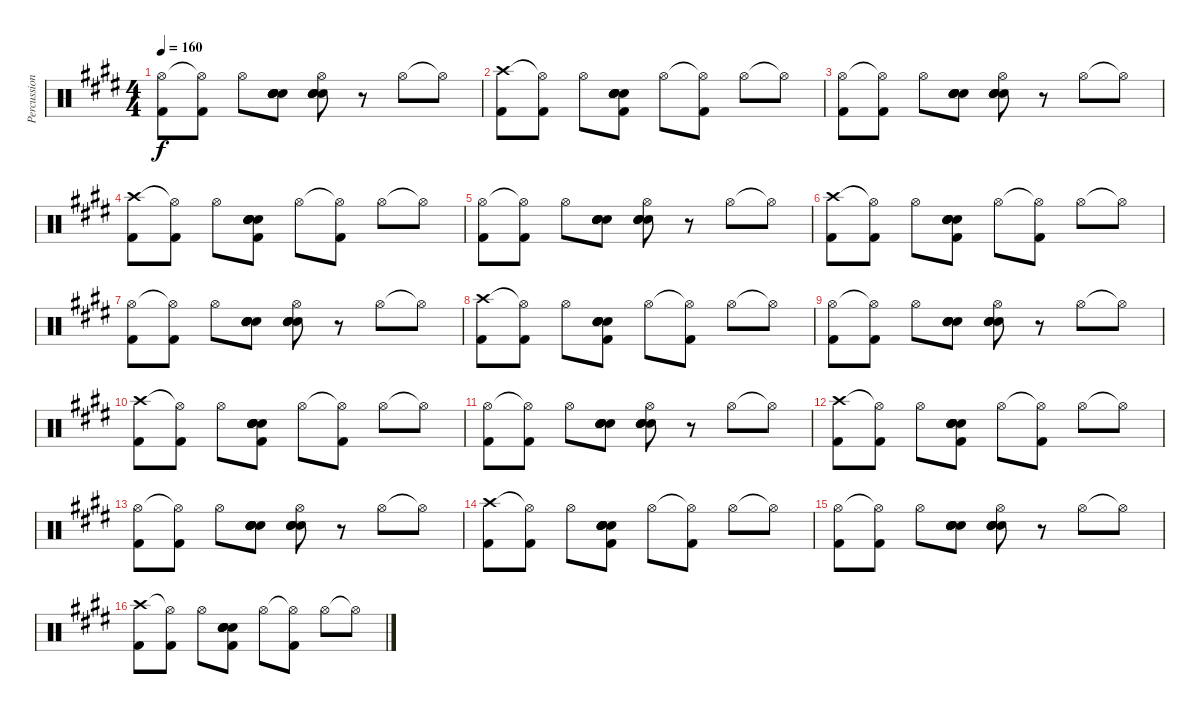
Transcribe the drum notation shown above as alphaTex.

\track ("Percussion" "Percussion") {instrument percussion}
\staff {score}
\articulation defaults
\ts (4 4)
\tempo 160
\clef neutral
\ks c#minor
("Hi-Hat (open)" "Kick (hit) 2").8{dy f} ("Hi-Hat (open)"{t} "Kick (hit) 2").8 "Hi-Hat (open)".8 ("Electric Snare (hit)" "Electric Snare (hit)" "Electric Snare (hit)" "Electric Snare (hit)" "Electric Snare (hit)").8 ("Electric Snare (hit)" "Electric Snare (hit)" "Hi-Hat (open)" "Electric Snare (hit)" "Electric Snare (hit)").8 r.8 "Hi-Hat (open)".8 "Hi-Hat (open)"{t}.8 |
("Crash high (hit)" "Kick (hit) 2").8 ("Hi-Hat (open)"{t} "Kick (hit) 2").8 "Hi-Hat (open)".8 ("Electric Snare (hit)" "Electric Snare (hit)" "Electric Snare (hit)" "Electric Snare (hit)" "Electric Snare (hit)" "Kick (hit) 2").8 "Hi-Hat (open)".8 ("Hi-Hat (open)"{t} "Kick (hit) 2").8 "Hi-Hat (open)".8 "Hi-Hat (open)"{t}.8 |
("Hi-Hat (open)" "Kick (hit) 2").8 ("Hi-Hat (open)"{t} "Kick (hit) 2").8 "Hi-Hat (open)".8 ("Electric Snare (hit)" "Electric Snare (hit)" "Electric Snare (hit)" "Electric Snare (hit)" "Electric Snare (hit)").8 ("Electric Snare (hit)" "Electric Snare (hit)" "Hi-Hat (open)" "Electric Snare (hit)" "Electric Snare (hit)").8 r.8 "Hi-Hat (open)".8 "Hi-Hat (open)"{t}.8 |
("Crash high (hit)" "Kick (hit) 2").8 ("Hi-Hat (open)"{t} "Kick (hit) 2").8 "Hi-Hat (open)".8 ("Electric Snare (hit)" "Electric Snare (hit)" "Electric Snare (hit)" "Electric Snare (hit)" "Electric Snare (hit)" "Kick (hit) 2").8 "Hi-Hat (open)".8 ("Hi-Hat (open)"{t} "Kick (hit) 2").8 "Hi-Hat (open)".8 "Hi-Hat (open)"{t}.8 |
("Hi-Hat (open)" "Kick (hit) 2").8 ("Hi-Hat (open)"{t} "Kick (hit) 2").8 "Hi-Hat (open)".8 ("Electric Snare (hit)" "Electric Snare (hit)" "Electric Snare (hit)" "Electric Snare (hit)" "Electric Snare (hit)").8 ("Electric Snare (hit)" "Electric Snare (hit)" "Hi-Hat (open)" "Electric Snare (hit)" "Electric Snare (hit)").8 r.8 "Hi-Hat (open)".8 "Hi-Hat (open)"{t}.8 |
("Crash high (hit)" "Kick (hit) 2").8 ("Hi-Hat (open)"{t} "Kick (hit) 2").8 "Hi-Hat (open)".8 ("Electric Snare (hit)" "Electric Snare (hit)" "Electric Snare (hit)" "Electric Snare (hit)" "Electric Snare (hit)" "Kick (hit) 2").8 "Hi-Hat (open)".8 ("Hi-Hat (open)"{t} "Kick (hit) 2").8 "Hi-Hat (open)".8 "Hi-Hat (open)"{t}.8 |
("Hi-Hat (open)" "Kick (hit) 2").8 ("Hi-Hat (open)"{t} "Kick (hit) 2").8 "Hi-Hat (open)".8 ("Electric Snare (hit)" "Electric Snare (hit)" "Electric Snare (hit)" "Electric Snare (hit)" "Electric Snare (hit)").8 ("Electric Snare (hit)" "Electric Snare (hit)" "Hi-Hat (open)" "Electric Snare (hit)" "Electric Snare (hit)").8 r.8 "Hi-Hat (open)".8 "Hi-Hat (open)"{t}.8 |
("Crash high (hit)" "Kick (hit) 2").8 ("Hi-Hat (open)"{t} "Kick (hit) 2").8 "Hi-Hat (open)".8 ("Electric Snare (hit)" "Electric Snare (hit)" "Electric Snare (hit)" "Electric Snare (hit)" "Electric Snare (hit)" "Kick (hit) 2").8 "Hi-Hat (open)".8 ("Hi-Hat (open)"{t} "Kick (hit) 2").8 "Hi-Hat (open)".8 "Hi-Hat (open)"{t}.8 |
("Hi-Hat (open)" "Kick (hit) 2").8 ("Hi-Hat (open)"{t} "Kick (hit) 2").8 "Hi-Hat (open)".8 ("Electric Snare (hit)" "Electric Snare (hit)" "Electric Snare (hit)" "Electric Snare (hit)" "Electric Snare (hit)").8 ("Electric Snare (hit)" "Electric Snare (hit)" "Hi-Hat (open)" "Electric Snare (hit)" "Electric Snare (hit)").8 r.8 "Hi-Hat (open)".8 "Hi-Hat (open)"{t}.8 |
("Crash high (hit)" "Kick (hit) 2").8 ("Hi-Hat (open)"{t} "Kick (hit) 2").8 "Hi-Hat (open)".8 ("Electric Snare (hit)" "Electric Snare (hit)" "Electric Snare (hit)" "Electric Snare (hit)" "Electric Snare (hit)" "Kick (hit) 2").8 "Hi-Hat (open)".8 ("Hi-Hat (open)"{t} "Kick (hit) 2").8 "Hi-Hat (open)".8 "Hi-Hat (open)"{t}.8 |
("Hi-Hat (open)" "Kick (hit) 2").8 ("Hi-Hat (open)"{t} "Kick (hit) 2").8 "Hi-Hat (open)".8 ("Electric Snare (hit)" "Electric Snare (hit)" "Electric Snare (hit)" "Electric Snare (hit)" "Electric Snare (hit)").8 ("Electric Snare (hit)" "Electric Snare (hit)" "Hi-Hat (open)" "Electric Snare (hit)" "Electric Snare (hit)").8 r.8 "Hi-Hat (open)".8 "Hi-Hat (open)"{t}.8 |
("Crash high (hit)" "Kick (hit) 2").8 ("Hi-Hat (open)"{t} "Kick (hit) 2").8 "Hi-Hat (open)".8 ("Electric Snare (hit)" "Electric Snare (hit)" "Electric Snare (hit)" "Electric Snare (hit)" "Electric Snare (hit)" "Kick (hit) 2").8 "Hi-Hat (open)".8 ("Hi-Hat (open)"{t} "Kick (hit) 2").8 "Hi-Hat (open)".8 "Hi-Hat (open)"{t}.8 |
("Hi-Hat (open)" "Kick (hit) 2").8 ("Hi-Hat (open)"{t} "Kick (hit) 2").8 "Hi-Hat (open)".8 ("Electric Snare (hit)" "Electric Snare (hit)" "Electric Snare (hit)" "Electric Snare (hit)" "Electric Snare (hit)").8 ("Electric Snare (hit)" "Electric Snare (hit)" "Hi-Hat (open)" "Electric Snare (hit)" "Electric Snare (hit)").8 r.8 "Hi-Hat (open)".8 "Hi-Hat (open)"{t}.8 |
("Crash high (hit)" "Kick (hit) 2").8 ("Hi-Hat (open)"{t} "Kick (hit) 2").8 "Hi-Hat (open)".8 ("Electric Snare (hit)" "Electric Snare (hit)" "Electric Snare (hit)" "Electric Snare (hit)" "Electric Snare (hit)" "Kick (hit) 2").8 "Hi-Hat (open)".8 ("Hi-Hat (open)"{t} "Kick (hit) 2").8 "Hi-Hat (open)".8 "Hi-Hat (open)"{t}.8 |
("Hi-Hat (open)" "Kick (hit) 2").8 ("Hi-Hat (open)"{t} "Kick (hit) 2").8 "Hi-Hat (open)".8 ("Electric Snare (hit)" "Electric Snare (hit)" "Electric Snare (hit)" "Electric Snare (hit)" "Electric Snare (hit)").8 ("Electric Snare (hit)" "Electric Snare (hit)" "Hi-Hat (open)" "Electric Snare (hit)" "Electric Snare (hit)").8 r.8 "Hi-Hat (open)".8 "Hi-Hat (open)"{t}.8 |
("Crash high (hit)" "Kick (hit) 2").8 ("Hi-Hat (open)"{t} "Kick (hit) 2").8 "Hi-Hat (open)".8 ("Electric Snare (hit)" "Electric Snare (hit)" "Electric Snare (hit)" "Electric Snare (hit)" "Electric Snare (hit)" "Kick (hit) 2").8 "Hi-Hat (open)".8 ("Hi-Hat (open)"{t} "Kick (hit) 2").8 "Hi-Hat (open)".8 "Hi-Hat (open)"{t}.8
